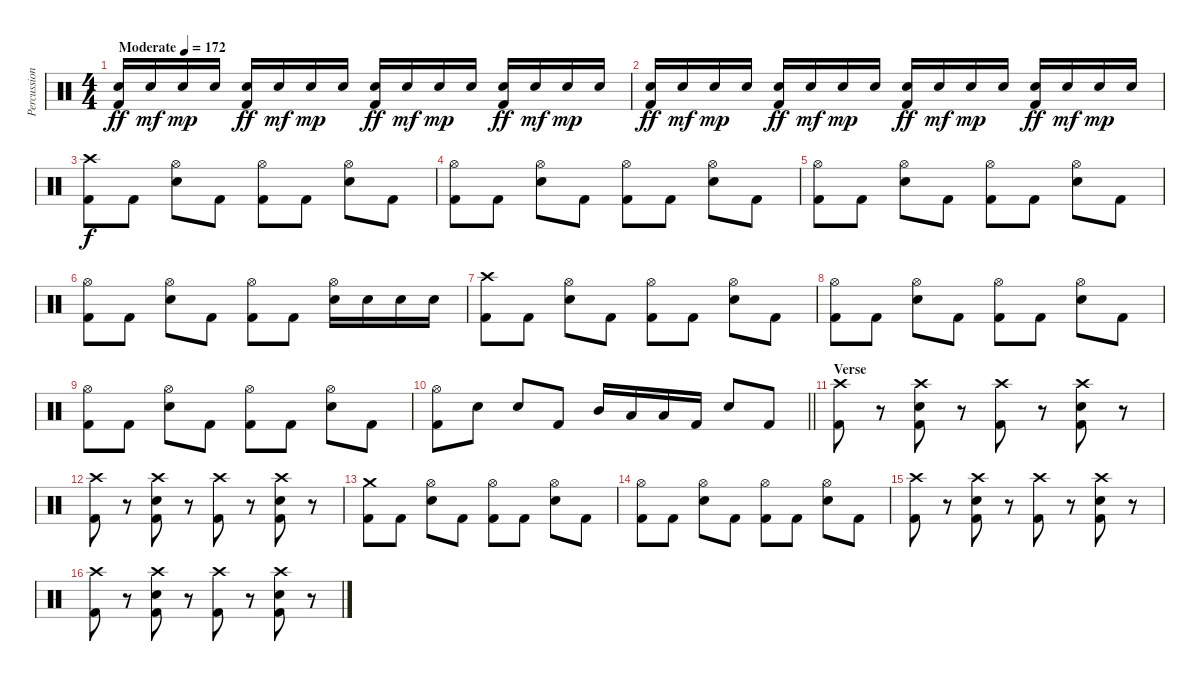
\track ("Percussion" "Percussion") {instrument percussion}
\staff {score}
\articulation defaults
\ts (4 4)
\tempo (172 "Moderate")
\clef neutral
\ks c
("Snare (hit) 2" "Kick (hit) 2").16{dy ff} "Snare (hit) 2".16{dy mf} "Snare (hit) 2".16{dy mp} "Snare (hit) 2".16 ("Snare (hit) 2" "Kick (hit) 2").16{dy ff} "Snare (hit) 2".16{dy mf} "Snare (hit) 2".16{dy mp} "Snare (hit) 2".16 ("Snare (hit) 2" "Kick (hit) 2").16{dy ff} "Snare (hit) 2".16{dy mf} "Snare (hit) 2".16{dy mp} "Snare (hit) 2".16 ("Snare (hit) 2" "Kick (hit) 2").16{dy ff} "Snare (hit) 2".16{dy mf} "Snare (hit) 2".16{dy mp} "Snare (hit) 2".16 |
("Snare (hit) 2" "Kick (hit) 2").16{dy ff} "Snare (hit) 2".16{dy mf} "Snare (hit) 2".16{dy mp} "Snare (hit) 2".16 ("Snare (hit) 2" "Kick (hit) 2").16{dy ff} "Snare (hit) 2".16{dy mf} "Snare (hit) 2".16{dy mp} "Snare (hit) 2".16 ("Snare (hit) 2" "Kick (hit) 2").16{dy ff} "Snare (hit) 2".16{dy mf} "Snare (hit) 2".16{dy mp} "Snare (hit) 2".16 ("Snare (hit) 2" "Kick (hit) 2").16{dy ff} "Snare (hit) 2".16{dy mf} "Snare (hit) 2".16{dy mp} "Snare (hit) 2".16 |
("Crash high (hit)" "Kick (hit) 2").8{dy f} "Kick (hit) 2".8 ("Hi-Hat (open)" "Snare (hit) 2").8 "Kick (hit) 2".8 ("Hi-Hat (open)" "Kick (hit) 2").8 "Kick (hit) 2".8 ("Hi-Hat (open)" "Snare (hit) 2").8 "Kick (hit) 2".8 |
("Hi-Hat (open)" "Kick (hit) 2").8 "Kick (hit) 2".8 ("Hi-Hat (open)" "Snare (hit) 2").8 "Kick (hit) 2".8 ("Hi-Hat (open)" "Kick (hit) 2").8 "Kick (hit) 2".8 ("Hi-Hat (open)" "Snare (hit) 2").8 "Kick (hit) 2".8 |
("Hi-Hat (open)" "Kick (hit) 2").8 "Kick (hit) 2".8 ("Hi-Hat (open)" "Snare (hit) 2").8 "Kick (hit) 2".8 ("Hi-Hat (open)" "Kick (hit) 2").8 "Kick (hit) 2".8 ("Hi-Hat (open)" "Snare (hit) 2").8 "Kick (hit) 2".8 |
("Hi-Hat (open)" "Kick (hit) 2").8 "Kick (hit) 2".8 ("Hi-Hat (open)" "Snare (hit) 2").8 "Kick (hit) 2".8 ("Hi-Hat (open)" "Kick (hit) 2").8 "Kick (hit) 2".8 ("Hi-Hat (open)" "Snare (hit) 2").16 "Snare (hit) 2".16 "Snare (hit) 2".16 "Snare (hit) 2".16 |
("Crash high (hit)" "Kick (hit) 2").8 "Kick (hit) 2".8 ("Hi-Hat (open)" "Snare (hit) 2").8 "Kick (hit) 2".8 ("Hi-Hat (open)" "Kick (hit) 2").8 "Kick (hit) 2".8 ("Hi-Hat (open)" "Snare (hit) 2").8 "Kick (hit) 2".8 |
("Hi-Hat (open)" "Kick (hit) 2").8 "Kick (hit) 2".8 ("Hi-Hat (open)" "Snare (hit) 2").8 "Kick (hit) 2".8 ("Hi-Hat (open)" "Kick (hit) 2").8 "Kick (hit) 2".8 ("Hi-Hat (open)" "Snare (hit) 2").8 "Kick (hit) 2".8 |
("Hi-Hat (open)" "Kick (hit) 2").8 "Kick (hit) 2".8 ("Hi-Hat (open)" "Snare (hit) 2").8 "Kick (hit) 2".8 ("Hi-Hat (open)" "Kick (hit) 2").8 "Kick (hit) 2".8 ("Hi-Hat (open)" "Snare (hit) 2").8 "Kick (hit) 2".8 |
\barLineRight lightlight
("Hi-Hat (open)" "Kick (hit) 2").8 "Snare (hit) 2".8 "Snare (hit) 2".8 "Kick (hit) 2".8 "Mid Tom (hit)".16 "Low Tom (hit)".16 "Low Floor Tom (hit)".16 "Kick (hit) 2".16 "Snare (hit) 2".8 "Kick (hit) 2".8 |
\section ("" "Verse")
("Crash high (hit)" "Kick (hit) 2").8 r.8 ("Crash high (hit)" "Snare (hit) 2" "Kick (hit) 2").8 r.8 ("Crash high (hit)" "Kick (hit) 2").8 r.8 ("Crash high (hit)" "Snare (hit) 2" "Kick (hit) 2").8 r.8 |
("Crash high (hit)" "Kick (hit) 2").8 r.8 ("Crash high (hit)" "Snare (hit) 2" "Kick (hit) 2").8 r.8 ("Crash high (hit)" "Kick (hit) 2").8 r.8 ("Crash high (hit)" "Snare (hit) 2" "Kick (hit) 2").8 r.8 |
("Crash medium (hit)" "Kick (hit) 2").8 "Kick (hit) 2".8 ("Hi-Hat (open)" "Snare (hit) 2").8 "Kick (hit) 2".8 ("Hi-Hat (open)" "Kick (hit) 2").8 "Kick (hit) 2".8 ("Hi-Hat (open)" "Snare (hit) 2").8 "Kick (hit) 2".8 |
("Hi-Hat (open)" "Kick (hit) 2").8 "Kick (hit) 2".8 ("Hi-Hat (open)" "Snare (hit) 2").8 "Kick (hit) 2".8 ("Hi-Hat (open)" "Kick (hit) 2").8 "Kick (hit) 2".8 ("Hi-Hat (open)" "Snare (hit) 2").8 "Kick (hit) 2".8 |
("Crash high (hit)" "Kick (hit) 2").8 r.8 ("Crash high (hit)" "Snare (hit) 2" "Kick (hit) 2").8 r.8 ("Crash high (hit)" "Kick (hit) 2").8 r.8 ("Crash high (hit)" "Snare (hit) 2" "Kick (hit) 2").8 r.8 |
("Crash high (hit)" "Kick (hit) 2").8 r.8 ("Crash high (hit)" "Snare (hit) 2" "Kick (hit) 2").8 r.8 ("Crash high (hit)" "Kick (hit) 2").8 r.8 ("Crash high (hit)" "Snare (hit) 2" "Kick (hit) 2").8 r.8
